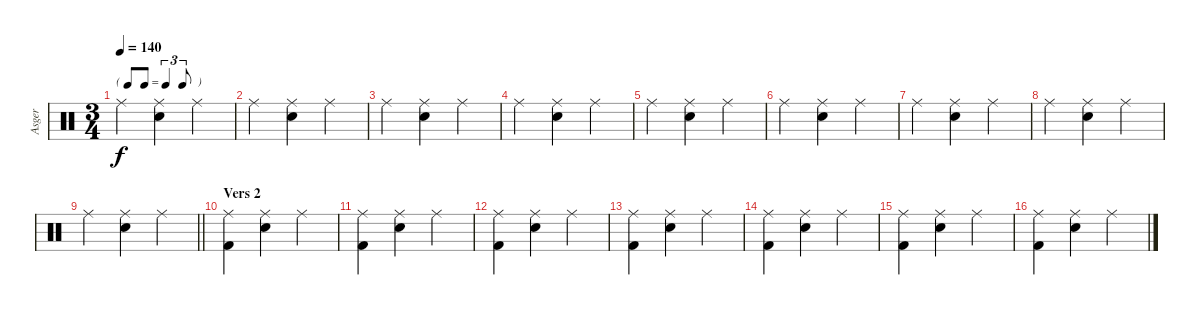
\track ("Asger " "Asger ") {instrument percussion}
\staff {score}
\articulation defaults
\ts (3 4)
\tf triplet8th
\tempo 140
\clef neutral
\ks c "Ride (middle)".4{dy f}
("Ride (middle)" "Snare (hit) 2").4 "Ride (middle)".4 |
"Ride (middle)".4 ("Ride (middle)" "Snare (hit) 2").4 "Ride (middle)".4 |
"Ride (middle)".4 ("Ride (middle)" "Snare (hit) 2").4 "Ride (middle)".4 |
"Ride (middle)".4 ("Ride (middle)" "Snare (hit) 2").4 "Ride (middle)".4 |
"Ride (middle)".4 ("Ride (middle)" "Snare (hit) 2").4 "Ride (middle)".4 |
"Ride (middle)".4 ("Ride (middle)" "Snare (hit) 2").4 "Ride (middle)".4 |
"Ride (middle)".4 ("Ride (middle)" "Snare (hit) 2").4 "Ride (middle)".4 |
"Ride (middle)".4 ("Ride (middle)" "Snare (hit) 2").4 "Ride (middle)".4 |
\barLineRight lightlight "Ride (middle)".4
("Ride (middle)" "Snare (hit) 2").4 "Ride (middle)".4 |
\section ("" "Vers 2")
("Ride (middle)" "Kick (hit) 2").4 ("Ride (middle)" "Snare (hit) 2").4 "Ride (middle)".4 |
("Ride (middle)" "Kick (hit) 2").4 ("Ride (middle)" "Snare (hit) 2").4 "Ride (middle)".4 |
("Ride (middle)" "Kick (hit) 2").4 ("Ride (middle)" "Snare (hit) 2").4 "Ride (middle)".4 |
("Ride (middle)" "Kick (hit) 2").4 ("Ride (middle)" "Snare (hit) 2").4 "Ride (middle)".4 |
("Ride (middle)" "Kick (hit) 2").4 ("Ride (middle)" "Snare (hit) 2").4 "Ride (middle)".4 |
("Ride (middle)" "Kick (hit) 2").4 ("Ride (middle)" "Snare (hit) 2").4 "Ride (middle)".4 |
("Ride (middle)" "Kick (hit) 2").4 ("Ride (middle)" "Snare (hit) 2").4 "Ride (middle)".4
